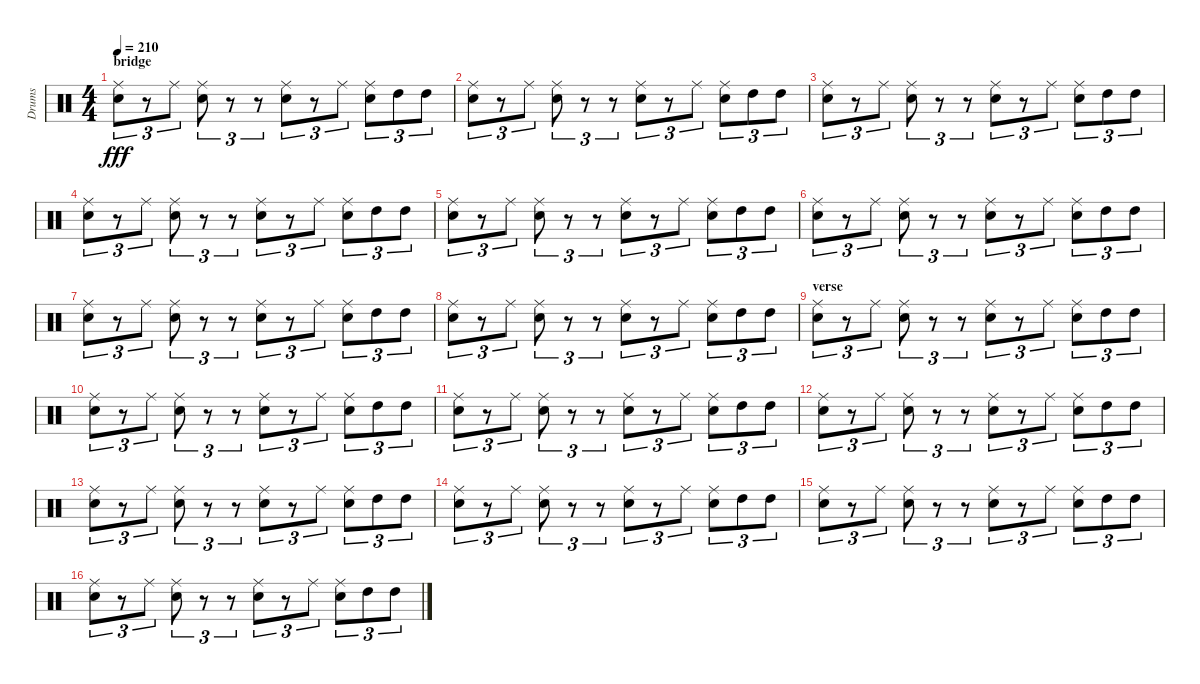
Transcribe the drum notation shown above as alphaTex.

\track ("Drums" "Drums") {instrument percussion}
\staff {score}
\articulation defaults
\ts (4 4)
\section ("" "bridge")
\tempo 210
\clef neutral
\ks c
("Electric Snare (hit)" "Ride (middle)").8{tu (3 2) dy fff} r.8{tu (3 2)} "Ride (middle)".8{tu (3 2)} ("Electric Snare (hit)" "Ride (middle)").8{tu (3 2)} r.8{tu (3 2)} r.8{tu (3 2)} ("Electric Snare (hit)" "Ride (middle)").8{tu (3 2)} r.8{tu (3 2)} "Ride (middle)".8{tu (3 2)} ("Electric Snare (hit)" "Ride (middle)").8{tu (3 2)} "High Tom (hit)".8{tu (3 2)} "High Tom (hit)".8{tu (3 2)} |
("Electric Snare (hit)" "Ride (middle)").8{tu (3 2)} r.8{tu (3 2)} "Ride (middle)".8{tu (3 2)} ("Electric Snare (hit)" "Ride (middle)").8{tu (3 2)} r.8{tu (3 2)} r.8{tu (3 2)} ("Electric Snare (hit)" "Ride (middle)").8{tu (3 2)} r.8{tu (3 2)} "Ride (middle)".8{tu (3 2)} ("Electric Snare (hit)" "Ride (middle)").8{tu (3 2)} "High Tom (hit)".8{tu (3 2)} "High Tom (hit)".8{tu (3 2)} |
("Electric Snare (hit)" "Ride (middle)").8{tu (3 2)} r.8{tu (3 2)} "Ride (middle)".8{tu (3 2)} ("Electric Snare (hit)" "Ride (middle)").8{tu (3 2)} r.8{tu (3 2)} r.8{tu (3 2)} ("Electric Snare (hit)" "Ride (middle)").8{tu (3 2)} r.8{tu (3 2)} "Ride (middle)".8{tu (3 2)} ("Electric Snare (hit)" "Ride (middle)").8{tu (3 2)} "High Tom (hit)".8{tu (3 2)} "High Tom (hit)".8{tu (3 2)} |
("Electric Snare (hit)" "Ride (middle)").8{tu (3 2)} r.8{tu (3 2)} "Ride (middle)".8{tu (3 2)} ("Electric Snare (hit)" "Ride (middle)").8{tu (3 2)} r.8{tu (3 2)} r.8{tu (3 2)} ("Electric Snare (hit)" "Ride (middle)").8{tu (3 2)} r.8{tu (3 2)} "Ride (middle)".8{tu (3 2)} ("Electric Snare (hit)" "Ride (middle)").8{tu (3 2)} "High Tom (hit)".8{tu (3 2)} "High Tom (hit)".8{tu (3 2)} |
("Electric Snare (hit)" "Ride (middle)").8{tu (3 2)} r.8{tu (3 2)} "Ride (middle)".8{tu (3 2)} ("Electric Snare (hit)" "Ride (middle)").8{tu (3 2)} r.8{tu (3 2)} r.8{tu (3 2)} ("Electric Snare (hit)" "Ride (middle)").8{tu (3 2)} r.8{tu (3 2)} "Ride (middle)".8{tu (3 2)} ("Electric Snare (hit)" "Ride (middle)").8{tu (3 2)} "High Tom (hit)".8{tu (3 2)} "High Tom (hit)".8{tu (3 2)} |
("Electric Snare (hit)" "Ride (middle)").8{tu (3 2)} r.8{tu (3 2)} "Ride (middle)".8{tu (3 2)} ("Electric Snare (hit)" "Ride (middle)").8{tu (3 2)} r.8{tu (3 2)} r.8{tu (3 2)} ("Electric Snare (hit)" "Ride (middle)").8{tu (3 2)} r.8{tu (3 2)} "Ride (middle)".8{tu (3 2)} ("Electric Snare (hit)" "Ride (middle)").8{tu (3 2)} "High Tom (hit)".8{tu (3 2)} "High Tom (hit)".8{tu (3 2)} |
("Electric Snare (hit)" "Ride (middle)").8{tu (3 2)} r.8{tu (3 2)} "Ride (middle)".8{tu (3 2)} ("Electric Snare (hit)" "Ride (middle)").8{tu (3 2)} r.8{tu (3 2)} r.8{tu (3 2)} ("Electric Snare (hit)" "Ride (middle)").8{tu (3 2)} r.8{tu (3 2)} "Ride (middle)".8{tu (3 2)} ("Electric Snare (hit)" "Ride (middle)").8{tu (3 2)} "High Tom (hit)".8{tu (3 2)} "High Tom (hit)".8{tu (3 2)} |
("Electric Snare (hit)" "Ride (middle)").8{tu (3 2)} r.8{tu (3 2)} "Ride (middle)".8{tu (3 2)} ("Electric Snare (hit)" "Ride (middle)").8{tu (3 2)} r.8{tu (3 2)} r.8{tu (3 2)} ("Electric Snare (hit)" "Ride (middle)").8{tu (3 2)} r.8{tu (3 2)} "Ride (middle)".8{tu (3 2)} ("Electric Snare (hit)" "Ride (middle)").8{tu (3 2)} "High Tom (hit)".8{tu (3 2)} "High Tom (hit)".8{tu (3 2)} |
\section ("" "verse")
("Electric Snare (hit)" "Ride (middle)").8{tu (3 2)} r.8{tu (3 2)} "Ride (middle)".8{tu (3 2)} ("Electric Snare (hit)" "Ride (middle)").8{tu (3 2)} r.8{tu (3 2)} r.8{tu (3 2)} ("Electric Snare (hit)" "Ride (middle)").8{tu (3 2)} r.8{tu (3 2)} "Ride (middle)".8{tu (3 2)} ("Electric Snare (hit)" "Ride (middle)").8{tu (3 2)} "High Tom (hit)".8{tu (3 2)} "High Tom (hit)".8{tu (3 2)} |
("Electric Snare (hit)" "Ride (middle)").8{tu (3 2)} r.8{tu (3 2)} "Ride (middle)".8{tu (3 2)} ("Electric Snare (hit)" "Ride (middle)").8{tu (3 2)} r.8{tu (3 2)} r.8{tu (3 2)} ("Electric Snare (hit)" "Ride (middle)").8{tu (3 2)} r.8{tu (3 2)} "Ride (middle)".8{tu (3 2)} ("Electric Snare (hit)" "Ride (middle)").8{tu (3 2)} "High Tom (hit)".8{tu (3 2)} "High Tom (hit)".8{tu (3 2)} |
("Electric Snare (hit)" "Ride (middle)").8{tu (3 2)} r.8{tu (3 2)} "Ride (middle)".8{tu (3 2)} ("Electric Snare (hit)" "Ride (middle)").8{tu (3 2)} r.8{tu (3 2)} r.8{tu (3 2)} ("Electric Snare (hit)" "Ride (middle)").8{tu (3 2)} r.8{tu (3 2)} "Ride (middle)".8{tu (3 2)} ("Electric Snare (hit)" "Ride (middle)").8{tu (3 2)} "High Tom (hit)".8{tu (3 2)} "High Tom (hit)".8{tu (3 2)} |
("Electric Snare (hit)" "Ride (middle)").8{tu (3 2)} r.8{tu (3 2)} "Ride (middle)".8{tu (3 2)} ("Electric Snare (hit)" "Ride (middle)").8{tu (3 2)} r.8{tu (3 2)} r.8{tu (3 2)} ("Electric Snare (hit)" "Ride (middle)").8{tu (3 2)} r.8{tu (3 2)} "Ride (middle)".8{tu (3 2)} ("Electric Snare (hit)" "Ride (middle)").8{tu (3 2)} "High Tom (hit)".8{tu (3 2)} "High Tom (hit)".8{tu (3 2)} |
("Electric Snare (hit)" "Ride (middle)").8{tu (3 2)} r.8{tu (3 2)} "Ride (middle)".8{tu (3 2)} ("Electric Snare (hit)" "Ride (middle)").8{tu (3 2)} r.8{tu (3 2)} r.8{tu (3 2)} ("Electric Snare (hit)" "Ride (middle)").8{tu (3 2)} r.8{tu (3 2)} "Ride (middle)".8{tu (3 2)} ("Electric Snare (hit)" "Ride (middle)").8{tu (3 2)} "High Tom (hit)".8{tu (3 2)} "High Tom (hit)".8{tu (3 2)} |
("Electric Snare (hit)" "Ride (middle)").8{tu (3 2)} r.8{tu (3 2)} "Ride (middle)".8{tu (3 2)} ("Electric Snare (hit)" "Ride (middle)").8{tu (3 2)} r.8{tu (3 2)} r.8{tu (3 2)} ("Electric Snare (hit)" "Ride (middle)").8{tu (3 2)} r.8{tu (3 2)} "Ride (middle)".8{tu (3 2)} ("Electric Snare (hit)" "Ride (middle)").8{tu (3 2)} "High Tom (hit)".8{tu (3 2)} "High Tom (hit)".8{tu (3 2)} |
("Electric Snare (hit)" "Ride (middle)").8{tu (3 2)} r.8{tu (3 2)} "Ride (middle)".8{tu (3 2)} ("Electric Snare (hit)" "Ride (middle)").8{tu (3 2)} r.8{tu (3 2)} r.8{tu (3 2)} ("Electric Snare (hit)" "Ride (middle)").8{tu (3 2)} r.8{tu (3 2)} "Ride (middle)".8{tu (3 2)} ("Electric Snare (hit)" "Ride (middle)").8{tu (3 2)} "High Tom (hit)".8{tu (3 2)} "High Tom (hit)".8{tu (3 2)} |
("Electric Snare (hit)" "Ride (middle)").8{tu (3 2)} r.8{tu (3 2)} "Ride (middle)".8{tu (3 2)} ("Electric Snare (hit)" "Ride (middle)").8{tu (3 2)} r.8{tu (3 2)} r.8{tu (3 2)} ("Electric Snare (hit)" "Ride (middle)").8{tu (3 2)} r.8{tu (3 2)} "Ride (middle)".8{tu (3 2)} ("Electric Snare (hit)" "Ride (middle)").8{tu (3 2)} "High Tom (hit)".8{tu (3 2)} "High Tom (hit)".8{tu (3 2)}
